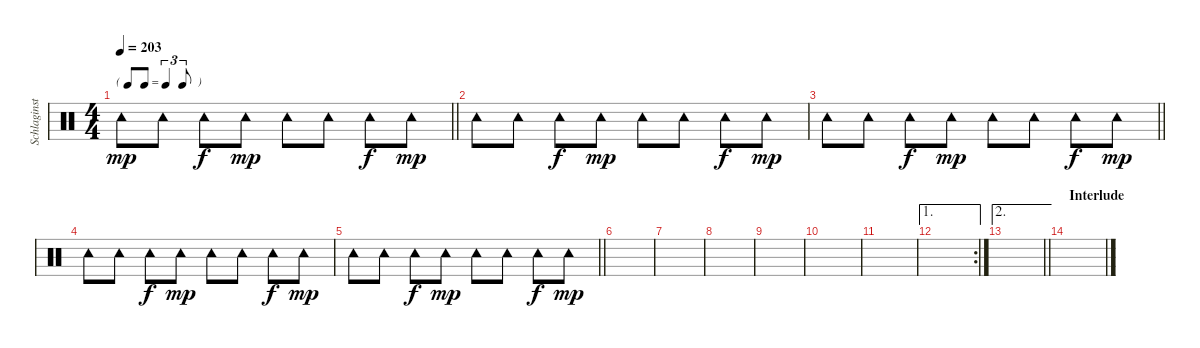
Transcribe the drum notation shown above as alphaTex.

\track ("Schlaginstrumente - Auswahl" "Schlaginst") {instrument percussion}
\staff {score}
\articulation defaults
\ts (4 4)
\tf triplet8th
\tempo 203
\clef neutral
\barLineRight lightlight
\ks c "Tambourine (hit)".8{dy mp} "Tambourine (hit)".8 "Tambourine (hit)".8{dy f} "Tambourine (hit)".8{dy mp} "Tambourine (hit)".8 "Tambourine (hit)".8 "Tambourine (hit)".8{dy f} "Tambourine (hit)".8{dy mp}
|
"Tambourine (hit)".8 "Tambourine (hit)".8 "Tambourine (hit)".8{dy f} "Tambourine (hit)".8{dy mp} "Tambourine (hit)".8 "Tambourine (hit)".8 "Tambourine (hit)".8{dy f} "Tambourine (hit)".8{dy mp} |
\barLineRight lightlight "Tambourine (hit)".8 "Tambourine (hit)".8 "Tambourine (hit)".8{dy f} "Tambourine (hit)".8{dy mp} "Tambourine (hit)".8 "Tambourine (hit)".8 "Tambourine (hit)".8{dy f} "Tambourine (hit)".8{dy mp}
|
"Tambourine (hit)".8 "Tambourine (hit)".8 "Tambourine (hit)".8{dy f} "Tambourine (hit)".8{dy mp} "Tambourine (hit)".8 "Tambourine (hit)".8 "Tambourine (hit)".8{dy f} "Tambourine (hit)".8{dy mp} |
\barLineRight lightlight "Tambourine (hit)".8 "Tambourine (hit)".8 "Tambourine (hit)".8{dy f} "Tambourine (hit)".8{dy mp} "Tambourine (hit)".8 "Tambourine (hit)".8 "Tambourine (hit)".8{dy f} "Tambourine (hit)".8{dy mp}
|
|
|
|
|
|
|
\ae 1
\rc 2
|
\ae 2
\barLineRight lightlight
|
\section ("" "Interlude")
